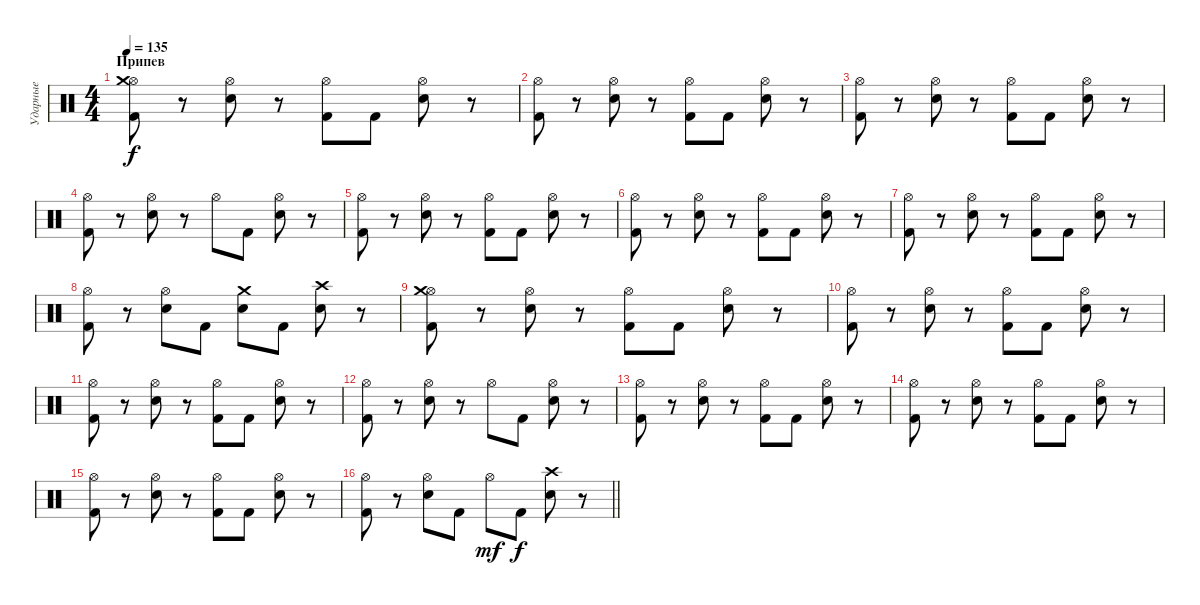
\track ("Ударные" "Ударные") {instrument percussion}
\staff {score}
\articulation defaults
\ts (4 4)
\section ("" "Припев")
\tempo 135
\clef neutral
\ks c
("Hi-Hat (open)" "Crash medium (hit)" "Kick (hit) 2").8{dy f} r.8 ("Hi-Hat (open)" "Electric Snare (hit)").8 r.8 ("Hi-Hat (open)" "Kick (hit) 2").8 "Kick (hit) 2".8 ("Hi-Hat (open)" "Electric Snare (hit)").8 r.8 |
("Hi-Hat (open)" "Kick (hit) 2").8 r.8 ("Hi-Hat (open)" "Electric Snare (hit)").8 r.8 ("Hi-Hat (open)" "Kick (hit) 2").8 "Kick (hit) 2".8 ("Hi-Hat (open)" "Electric Snare (hit)").8 r.8 |
("Hi-Hat (open)" "Kick (hit) 2").8 r.8 ("Hi-Hat (open)" "Electric Snare (hit)").8 r.8 ("Hi-Hat (open)" "Kick (hit) 2").8 "Kick (hit) 2".8 ("Hi-Hat (open)" "Electric Snare (hit)").8 r.8 |
("Hi-Hat (open)" "Kick (hit) 2").8 r.8 ("Hi-Hat (open)" "Electric Snare (hit)").8 r.8 "Hi-Hat (open)".8 "Kick (hit) 2".8 ("Hi-Hat (open)" "Electric Snare (hit)").8 r.8 |
("Hi-Hat (open)" "Kick (hit) 2").8 r.8 ("Hi-Hat (open)" "Electric Snare (hit)").8 r.8 ("Hi-Hat (open)" "Kick (hit) 2").8 "Kick (hit) 2".8 ("Hi-Hat (open)" "Electric Snare (hit)").8 r.8 |
("Hi-Hat (open)" "Kick (hit) 2").8 r.8 ("Hi-Hat (open)" "Electric Snare (hit)").8 r.8 ("Hi-Hat (open)" "Kick (hit) 2").8 "Kick (hit) 2".8 ("Hi-Hat (open)" "Electric Snare (hit)").8 r.8 |
("Hi-Hat (open)" "Kick (hit) 2").8 r.8 ("Hi-Hat (open)" "Electric Snare (hit)").8 r.8 ("Hi-Hat (open)" "Kick (hit) 2").8 "Kick (hit) 2".8 ("Hi-Hat (open)" "Electric Snare (hit)").8 r.8 |
("Hi-Hat (open)" "Kick (hit) 2").8 r.8 ("Hi-Hat (open)" "Electric Snare (hit)").8 "Kick (hit) 2".8 ("Crash medium (hit)" "Electric Snare (hit)").8 "Kick (hit) 2".8 ("Crash high (hit)" "Electric Snare (hit)").8 r.8 |
("Hi-Hat (open)" "Crash medium (hit)" "Kick (hit) 2").8 r.8 ("Hi-Hat (open)" "Electric Snare (hit)").8 r.8 ("Hi-Hat (open)" "Kick (hit) 2").8 "Kick (hit) 2".8 ("Hi-Hat (open)" "Electric Snare (hit)").8 r.8 |
("Hi-Hat (open)" "Kick (hit) 2").8 r.8 ("Hi-Hat (open)" "Electric Snare (hit)").8 r.8 ("Hi-Hat (open)" "Kick (hit) 2").8 "Kick (hit) 2".8 ("Hi-Hat (open)" "Electric Snare (hit)").8 r.8 |
("Hi-Hat (open)" "Kick (hit) 2").8 r.8 ("Hi-Hat (open)" "Electric Snare (hit)").8 r.8 ("Hi-Hat (open)" "Kick (hit) 2").8 "Kick (hit) 2".8 ("Hi-Hat (open)" "Electric Snare (hit)").8 r.8 |
("Hi-Hat (open)" "Kick (hit) 2").8 r.8 ("Hi-Hat (open)" "Electric Snare (hit)").8 r.8 "Hi-Hat (open)".8 "Kick (hit) 2".8 ("Hi-Hat (open)" "Electric Snare (hit)").8 r.8 |
("Hi-Hat (open)" "Kick (hit) 2").8 r.8 ("Hi-Hat (open)" "Electric Snare (hit)").8 r.8 ("Hi-Hat (open)" "Kick (hit) 2").8 "Kick (hit) 2".8 ("Hi-Hat (open)" "Electric Snare (hit)").8 r.8 |
("Hi-Hat (open)" "Kick (hit) 2").8 r.8 ("Hi-Hat (open)" "Electric Snare (hit)").8 r.8 ("Hi-Hat (open)" "Kick (hit) 2").8 "Kick (hit) 2".8 ("Hi-Hat (open)" "Electric Snare (hit)").8 r.8 |
("Hi-Hat (open)" "Kick (hit) 2").8 r.8 ("Hi-Hat (open)" "Electric Snare (hit)").8 r.8 ("Hi-Hat (open)" "Kick (hit) 2").8 "Kick (hit) 2".8 ("Hi-Hat (open)" "Electric Snare (hit)").8 r.8 |
\barLineRight lightlight
("Hi-Hat (open)" "Kick (hit) 2").8 r.8 ("Hi-Hat (open)" "Electric Snare (hit)").8 "Kick (hit) 2".8 "Hi-Hat (open)".8{dy mf} "Kick (hit) 2".8{dy f} ("Crash high (hit)" "Electric Snare (hit)").8 r.8
